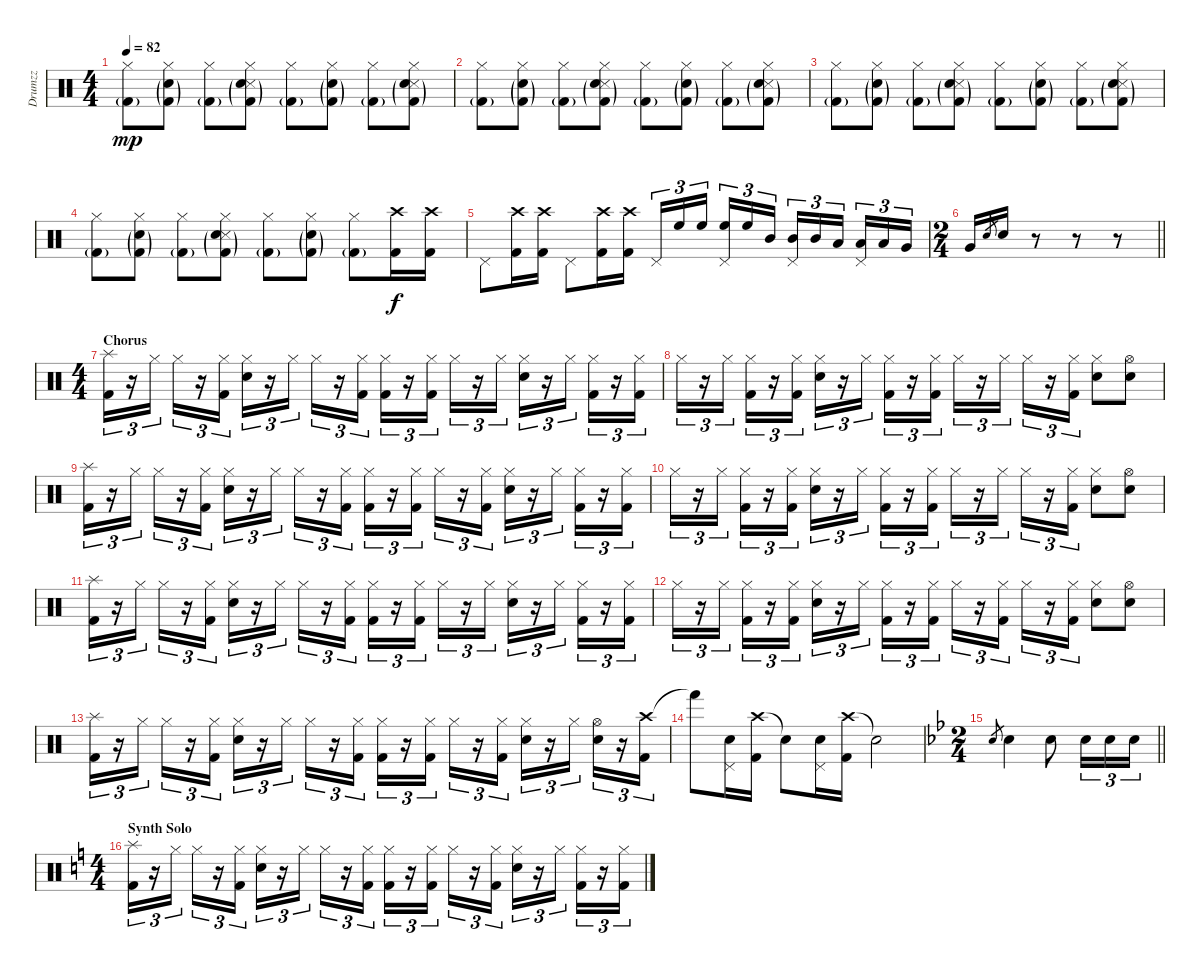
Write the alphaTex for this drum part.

\track ("Drumzz" "Drumzz") {instrument percussion}
\staff {score}
\articulation defaults
\ts (4 4)
\tempo 82
\clef neutral
\ks c
("Hi-Hat (closed)" "Kick (hit) 2"{g}).8{dy mp} ("Hi-Hat (closed)" "Snare (hit) 2"{g} "Kick (hit) 2"{g}).8 ("Hi-Hat (closed)" "Kick (hit) 2"{g}).8 ("Snare (side stick) 3" "Hi-Hat (closed)" "Snare (hit) 2"{g} "Kick (hit) 2"{g}).8 ("Hi-Hat (closed)" "Kick (hit) 2"{g}).8 ("Hi-Hat (closed)" "Snare (hit) 2"{g} "Kick (hit) 2"{g}).8 ("Hi-Hat (closed)" "Kick (hit) 2"{g}).8 ("Snare (side stick) 3" "Hi-Hat (closed)" "Snare (hit) 2"{g} "Kick (hit) 2"{g}).8 |
("Hi-Hat (closed)" "Kick (hit) 2"{g}).8 ("Hi-Hat (closed)" "Snare (hit) 2"{g} "Kick (hit) 2"{g}).8 ("Hi-Hat (closed)" "Kick (hit) 2"{g}).8 ("Snare (side stick) 3" "Hi-Hat (closed)" "Snare (hit) 2"{g} "Kick (hit) 2"{g}).8 ("Hi-Hat (closed)" "Kick (hit) 2"{g}).8 ("Hi-Hat (closed)" "Snare (hit) 2"{g} "Kick (hit) 2"{g}).8 ("Hi-Hat (closed)" "Kick (hit) 2"{g}).8 ("Snare (side stick) 3" "Hi-Hat (closed)" "Snare (hit) 2"{g} "Kick (hit) 2"{g}).8 |
("Hi-Hat (closed)" "Kick (hit) 2"{g}).8 ("Hi-Hat (closed)" "Snare (hit) 2"{g} "Kick (hit) 2"{g}).8 ("Hi-Hat (closed)" "Kick (hit) 2"{g}).8 ("Snare (side stick) 3" "Hi-Hat (closed)" "Snare (hit) 2"{g} "Kick (hit) 2"{g}).8 ("Hi-Hat (closed)" "Kick (hit) 2"{g}).8 ("Hi-Hat (closed)" "Snare (hit) 2"{g} "Kick (hit) 2"{g}).8 ("Hi-Hat (closed)" "Kick (hit) 2"{g}).8 ("Snare (side stick) 3" "Hi-Hat (closed)" "Snare (hit) 2"{g} "Kick (hit) 2"{g}).8 |
("Hi-Hat (closed)" "Kick (hit) 2"{g}).8 ("Hi-Hat (closed)" "Snare (hit) 2"{g} "Kick (hit) 2"{g}).8 ("Hi-Hat (closed)" "Kick (hit) 2"{g}).8 ("Snare (side stick) 3" "Hi-Hat (closed)" "Snare (hit) 2"{g} "Kick (hit) 2"{g}).8 ("Hi-Hat (closed)" "Kick (hit) 2"{g}).8 ("Hi-Hat (closed)" "Snare (hit) 2"{g} "Kick (hit) 2"{g}).8 ("Hi-Hat (closed)" "Kick (hit) 2"{g}).8 ("Crash high (hit)" "Kick (hit) 2").16{dy f} ("Crash high (hit)" "Kick (hit) 2").16 |
"Pedal Hi-Hat (hit)".8 ("Crash high (hit)" "Kick (hit) 2").16 ("Crash high (hit)" "Kick (hit) 2").16 "Pedal Hi-Hat (hit)".8 ("Crash high (hit)" "Kick (hit) 2").16 ("Crash high (hit)" "Kick (hit) 2").16 "Pedal Hi-Hat (hit)".16{tu (3 2)} "High Floor Tom (hit)".16{tu (3 2)} "High Floor Tom (hit)".16{tu (3 2) beam splitsecondary} ("Pedal Hi-Hat (hit)" "High Floor Tom (hit)").16{tu (3 2)} "High Floor Tom (hit)".16{tu (3 2)} "Mid Tom (hit)".16{tu (3 2)} ("Pedal Hi-Hat (hit)" "Mid Tom (hit)").16{tu (3 2)} "Mid Tom (hit)".16{tu (3 2)} "Low Tom (hit)".16{tu (3 2) beam splitsecondary} ("Pedal Hi-Hat (hit)" "Low Tom (hit)").16{tu (3 2)} "Low Tom (hit)".16{tu (3 2)} "Very Low Tom (hit)".16{tu (3 2)} |
\ts (2 4)
\barLineRight lightlight "Very Low Tom (hit)".16 "Snare (hit) 2".8{gr} "Snare (hit) 2".16
r.8 r.8 r.8 |
\ts (4 4)
\section ("" "Chorus")
("Splash (hit)" "Kick (hit) 2").16{tu (3 2)} r.16{tu (3 2)} "Hi-Hat (closed)".16{tu (3 2)} "Hi-Hat (closed)".16{tu (3 2)} r.16{tu (3 2)} ("Hi-Hat (closed)" "Kick (hit) 2").16{tu (3 2)} ("Hi-Hat (closed)" "Snare (hit) 2").16{tu (3 2)} r.16{tu (3 2)} "Hi-Hat (closed)".16{tu (3 2)} "Hi-Hat (closed)".16{tu (3 2)} r.16{tu (3 2)} ("Hi-Hat (closed)" "Kick (hit) 2").16{tu (3 2)} ("Hi-Hat (closed)" "Kick (hit) 2").16{tu (3 2)} r.16{tu (3 2)} ("Hi-Hat (closed)" "Kick (hit) 2").16{tu (3 2)} "Hi-Hat (closed)".16{tu (3 2)} r.16{tu (3 2)} "Hi-Hat (closed)".16{tu (3 2)} ("Hi-Hat (closed)" "Snare (hit) 2").16{tu (3 2)} r.16{tu (3 2)} "Hi-Hat (closed)".16{tu (3 2)} ("Hi-Hat (closed)" "Kick (hit) 2").16{tu (3 2)} r.16{tu (3 2)} ("Hi-Hat (closed)" "Kick (hit) 2").16{tu (3 2)} |
"Hi-Hat (closed)".16{tu (3 2)} r.16{tu (3 2)} "Hi-Hat (closed)".16{tu (3 2)} ("Hi-Hat (closed)" "Kick (hit) 2").16{tu (3 2)} r.16{tu (3 2)} ("Hi-Hat (closed)" "Kick (hit) 2").16{tu (3 2)} ("Hi-Hat (closed)" "Snare (hit) 2").16{tu (3 2)} r.16{tu (3 2)} "Hi-Hat (closed)".16{tu (3 2)} ("Hi-Hat (closed)" "Kick (hit) 2").16{tu (3 2)} r.16{tu (3 2)} ("Hi-Hat (closed)" "Kick (hit) 2").16{tu (3 2)} "Hi-Hat (closed)".16{tu (3 2)} r.16{tu (3 2)} "Hi-Hat (closed)".16{tu (3 2)} "Hi-Hat (closed)".16{tu (3 2)} r.16{tu (3 2)} ("Hi-Hat (closed)" "Kick (hit) 2").16{tu (3 2)} ("Hi-Hat (closed)" "Snare (hit) 2").8 ("Hi-Hat (open)" "Snare (hit) 2").8 |
("Splash (hit)" "Kick (hit) 2").16{tu (3 2)} r.16{tu (3 2)} "Hi-Hat (closed)".16{tu (3 2)} "Hi-Hat (closed)".16{tu (3 2)} r.16{tu (3 2)} ("Hi-Hat (closed)" "Kick (hit) 2").16{tu (3 2)} ("Hi-Hat (closed)" "Snare (hit) 2").16{tu (3 2)} r.16{tu (3 2)} "Hi-Hat (closed)".16{tu (3 2)} "Hi-Hat (closed)".16{tu (3 2)} r.16{tu (3 2)} ("Hi-Hat (closed)" "Kick (hit) 2").16{tu (3 2)} ("Hi-Hat (closed)" "Kick (hit) 2").16{tu (3 2)} r.16{tu (3 2)} ("Hi-Hat (closed)" "Kick (hit) 2").16{tu (3 2)} "Hi-Hat (closed)".16{tu (3 2)} r.16{tu (3 2)} ("Hi-Hat (closed)" "Kick (hit) 2").16{tu (3 2)} ("Hi-Hat (closed)" "Snare (hit) 2").16{tu (3 2)} r.16{tu (3 2)} "Hi-Hat (closed)".16{tu (3 2)} ("Hi-Hat (closed)" "Kick (hit) 2").16{tu (3 2)} r.16{tu (3 2)} ("Hi-Hat (closed)" "Kick (hit) 2").16{tu (3 2)} |
"Hi-Hat (closed)".16{tu (3 2)} r.16{tu (3 2)} "Hi-Hat (closed)".16{tu (3 2)} ("Hi-Hat (closed)" "Kick (hit) 2").16{tu (3 2)} r.16{tu (3 2)} ("Hi-Hat (closed)" "Kick (hit) 2").16{tu (3 2)} ("Hi-Hat (closed)" "Snare (hit) 2").16{tu (3 2)} r.16{tu (3 2)} "Hi-Hat (closed)".16{tu (3 2)} ("Hi-Hat (closed)" "Kick (hit) 2").16{tu (3 2)} r.16{tu (3 2)} ("Hi-Hat (closed)" "Kick (hit) 2").16{tu (3 2)} "Hi-Hat (closed)".16{tu (3 2)} r.16{tu (3 2)} "Hi-Hat (closed)".16{tu (3 2)} "Hi-Hat (closed)".16{tu (3 2)} r.16{tu (3 2)} ("Hi-Hat (closed)" "Kick (hit) 2").16{tu (3 2)} ("Hi-Hat (closed)" "Snare (hit) 2").8 ("Hi-Hat (open)" "Snare (hit) 2").8 |
("Splash (hit)" "Kick (hit) 2").16{tu (3 2)} r.16{tu (3 2)} "Hi-Hat (closed)".16{tu (3 2)} "Hi-Hat (closed)".16{tu (3 2)} r.16{tu (3 2)} ("Hi-Hat (closed)" "Kick (hit) 2").16{tu (3 2)} ("Hi-Hat (closed)" "Snare (hit) 2").16{tu (3 2)} r.16{tu (3 2)} "Hi-Hat (closed)".16{tu (3 2)} "Hi-Hat (closed)".16{tu (3 2)} r.16{tu (3 2)} ("Hi-Hat (closed)" "Kick (hit) 2").16{tu (3 2)} ("Hi-Hat (closed)" "Kick (hit) 2").16{tu (3 2)} r.16{tu (3 2)} ("Hi-Hat (closed)" "Kick (hit) 2").16{tu (3 2)} "Hi-Hat (closed)".16{tu (3 2)} r.16{tu (3 2)} "Hi-Hat (closed)".16{tu (3 2)} ("Hi-Hat (closed)" "Snare (hit) 2").16{tu (3 2)} r.16{tu (3 2)} "Hi-Hat (closed)".16{tu (3 2)} ("Hi-Hat (closed)" "Kick (hit) 2").16{tu (3 2)} r.16{tu (3 2)} ("Hi-Hat (closed)" "Kick (hit) 2").16{tu (3 2)} |
"Hi-Hat (closed)".16{tu (3 2)} r.16{tu (3 2)} "Hi-Hat (closed)".16{tu (3 2)} ("Hi-Hat (closed)" "Kick (hit) 2").16{tu (3 2)} r.16{tu (3 2)} ("Hi-Hat (closed)" "Kick (hit) 2").16{tu (3 2)} ("Hi-Hat (closed)" "Snare (hit) 2").16{tu (3 2)} r.16{tu (3 2)} "Hi-Hat (closed)".16{tu (3 2)} ("Hi-Hat (closed)" "Kick (hit) 2").16{tu (3 2)} r.16{tu (3 2)} ("Hi-Hat (closed)" "Kick (hit) 2").16{tu (3 2)} "Hi-Hat (closed)".16{tu (3 2)} r.16{tu (3 2)} ("Hi-Hat (closed)" "Kick (hit) 2").16{tu (3 2)} "Hi-Hat (closed)".16{tu (3 2)} r.16{tu (3 2)} ("Hi-Hat (closed)" "Kick (hit) 2").16{tu (3 2)} ("Hi-Hat (closed)" "Snare (hit) 2").8 ("Hi-Hat (open)" "Snare (hit) 2").8 |
("Splash (hit)" "Kick (hit) 2").16{tu (3 2)} r.16{tu (3 2)} "Hi-Hat (closed)".16{tu (3 2)} "Hi-Hat (closed)".16{tu (3 2)} r.16{tu (3 2)} ("Hi-Hat (closed)" "Kick (hit) 2").16{tu (3 2)} ("Hi-Hat (closed)" "Snare (hit) 2").16{tu (3 2)} r.16{tu (3 2)} "Hi-Hat (closed)".16{tu (3 2)} "Hi-Hat (closed)".16{tu (3 2)} r.16{tu (3 2)} ("Hi-Hat (closed)" "Kick (hit) 2").16{tu (3 2)} ("Hi-Hat (closed)" "Kick (hit) 2").16{tu (3 2)} r.16{tu (3 2)} ("Hi-Hat (closed)" "Kick (hit) 2").16{tu (3 2)} "Hi-Hat (closed)".16{tu (3 2)} r.16{tu (3 2)} ("Hi-Hat (closed)" "Kick (hit) 2").16{tu (3 2)} ("Hi-Hat (closed)" "Snare (hit) 2").16{tu (3 2)} r.16{tu (3 2)} "Hi-Hat (closed)".16{tu (3 2)} ("Hi-Hat (open)" "Snare (hit) 2").16{tu (3 2)} r.16{tu (3 2)} ("Crash high (hit)" "Kick (hit) 2").16{tu (3 2)} |
"Hand (hit)"{t}.8 ("Pedal Hi-Hat (hit)" "Snare (hit) 2").16 ("Crash high (hit)" "Kick (hit) 2").16 "Snare (hit)"{t}.8 ("Pedal Hi-Hat (hit)" "Snare (hit) 2").16 ("Crash high (hit)" "Kick (hit) 2").16 "Snare (hit)"{t}.2 |
\ts (2 4)
\barLineRight lightlight
\ks bb "Snare (hit) 2".8{gr} "Snare (hit) 2".4 "Snare (hit) 2".8 "Snare (hit) 2".16{tu (3 2)} "Snare (hit) 2".16{tu (3 2)} "Snare (hit) 2".16{tu (3 2)}
|
\ts (4 4)
\section ("" "Synth Solo")
\ks c
("Splash (hit)" "Kick (hit) 2").16{tu (3 2)} r.16{tu (3 2)} "Hi-Hat (closed)".16{tu (3 2)} "Hi-Hat (closed)".16{tu (3 2)} r.16{tu (3 2)} ("Hi-Hat (closed)" "Kick (hit) 2").16{tu (3 2)} ("Hi-Hat (closed)" "Snare (hit) 2").16{tu (3 2)} r.16{tu (3 2)} "Hi-Hat (closed)".16{tu (3 2)} "Hi-Hat (closed)".16{tu (3 2)} r.16{tu (3 2)} ("Hi-Hat (closed)" "Kick (hit) 2").16{tu (3 2)} ("Hi-Hat (closed)" "Kick (hit) 2").16{tu (3 2)} r.16{tu (3 2)} ("Hi-Hat (closed)" "Kick (hit) 2").16{tu (3 2)} "Hi-Hat (closed)".16{tu (3 2)} r.16{tu (3 2)} ("Hi-Hat (closed)" "Kick (hit) 2").16{tu (3 2)} ("Hi-Hat (closed)" "Snare (hit) 2").16{tu (3 2)} r.16{tu (3 2)} "Hi-Hat (closed)".16{tu (3 2)} ("Hi-Hat (closed)" "Kick (hit) 2").16{tu (3 2)} r.16{tu (3 2)} ("Hi-Hat (closed)" "Kick (hit) 2").16{tu (3 2)}
